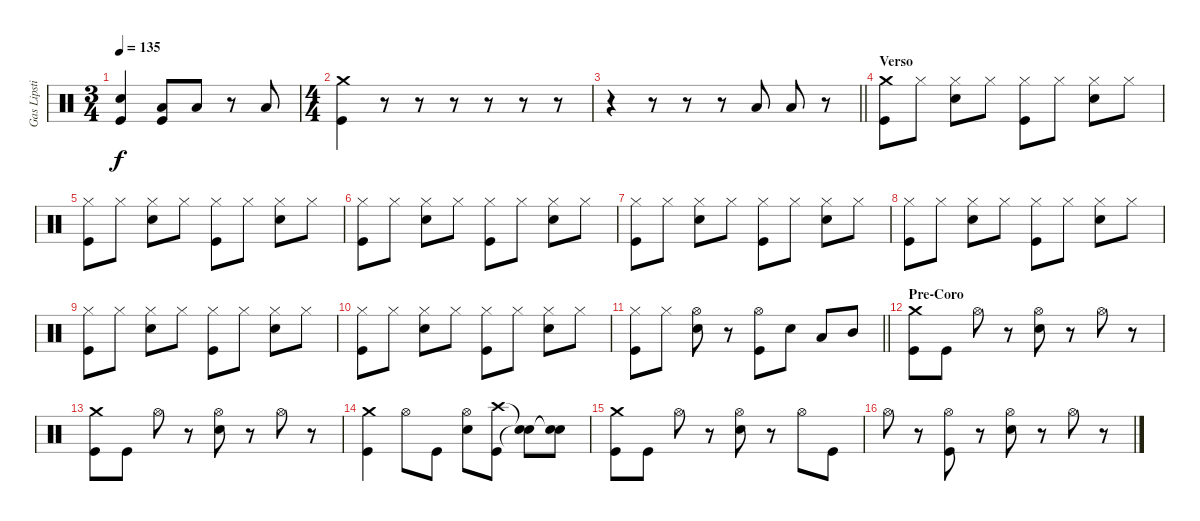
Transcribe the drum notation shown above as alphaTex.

\track ("Gas Lipstick" "Gas Lipsti") {instrument percussion}
\staff {score}
\articulation defaults
\ts (3 4)
\tempo 135
\clef neutral
\ks c
("Snare (hit) 2" "Kick (hit)").4{dy f} ("Low Tom (hit)" "Kick (hit)").8 "Low Tom (hit)".8 r.8 "Low Tom (hit)".8 |
\ts (4 4)
("Crash medium (hit)" "Kick (hit)").4 r.8 r.8 r.8 r.8 r.8 r.8 |
\barLineRight lightlight
r.4 r.8 r.8 r.8 "Low Tom (hit)".8 "Low Tom (hit)".8 r.8 |
\section ("" "Verso")
("Crash medium (hit)" "Kick (hit)").8 "Hi-Hat (closed)".8 ("Hi-Hat (closed)" "Snare (hit) 2").8 "Hi-Hat (closed)".8 ("Hi-Hat (closed)" "Kick (hit)").8 "Hi-Hat (closed)".8 ("Hi-Hat (closed)" "Snare (hit) 2").8 "Hi-Hat (closed)".8 |
("Hi-Hat (closed)" "Kick (hit)").8 "Hi-Hat (closed)".8 ("Hi-Hat (closed)" "Snare (hit) 2").8 "Hi-Hat (closed)".8 ("Hi-Hat (closed)" "Kick (hit)").8 "Hi-Hat (closed)".8 ("Hi-Hat (closed)" "Snare (hit) 2").8 "Hi-Hat (closed)".8 |
("Hi-Hat (closed)" "Kick (hit)").8 "Hi-Hat (closed)".8 ("Hi-Hat (closed)" "Snare (hit) 2").8 "Hi-Hat (closed)".8 ("Hi-Hat (closed)" "Kick (hit)").8 "Hi-Hat (closed)".8 ("Hi-Hat (closed)" "Snare (hit) 2").8 "Hi-Hat (closed)".8 |
("Hi-Hat (closed)" "Kick (hit)").8 "Hi-Hat (closed)".8 ("Hi-Hat (closed)" "Snare (hit) 2").8 "Hi-Hat (closed)".8 ("Hi-Hat (closed)" "Kick (hit)").8 "Hi-Hat (closed)".8 ("Hi-Hat (closed)" "Snare (hit) 2").8 "Hi-Hat (closed)".8 |
("Hi-Hat (closed)" "Kick (hit)").8 "Hi-Hat (closed)".8 ("Hi-Hat (closed)" "Snare (hit) 2").8 "Hi-Hat (closed)".8 ("Hi-Hat (closed)" "Kick (hit)").8 "Hi-Hat (closed)".8 ("Hi-Hat (closed)" "Snare (hit) 2").8 "Hi-Hat (closed)".8 |
("Hi-Hat (closed)" "Kick (hit)").8 "Hi-Hat (closed)".8 ("Hi-Hat (closed)" "Snare (hit) 2").8 "Hi-Hat (closed)".8 ("Hi-Hat (closed)" "Kick (hit)").8 "Hi-Hat (closed)".8 ("Hi-Hat (closed)" "Snare (hit) 2").8 "Hi-Hat (closed)".8 |
("Hi-Hat (closed)" "Kick (hit)").8 "Hi-Hat (closed)".8 ("Hi-Hat (closed)" "Snare (hit) 2").8 "Hi-Hat (closed)".8 ("Hi-Hat (closed)" "Kick (hit)").8 "Hi-Hat (closed)".8 ("Hi-Hat (closed)" "Snare (hit) 2").8 "Hi-Hat (closed)".8 |
\barLineRight lightlight
("Hi-Hat (closed)" "Kick (hit)").8 "Hi-Hat (closed)".8 ("Hi-Hat (open)" "Snare (hit) 2").8 r.8 ("Hi-Hat (open)" "Kick (hit)").8 "Snare (hit) 2".8 "Low Tom (hit)".8 "Mid Tom (hit)".8 |
\section ("" "Pre-Coro")
("Crash medium (hit)" "Kick (hit)").8 "Kick (hit)".8 "Hi-Hat (open)".8 r.8 ("Hi-Hat (open)" "Snare (hit) 2").8 r.8 "Hi-Hat (open)".8 r.8 |
("Crash medium (hit)" "Kick (hit)").8 "Kick (hit)".8 "Hi-Hat (open)".8 r.8 ("Hi-Hat (open)" "Snare (hit) 2").8 r.8 "Hi-Hat (open)".8 r.8 |
("Crash medium (hit)" "Kick (hit)").4 "Hi-Hat (open)".8 "Kick (hit)".8 ("Hi-Hat (open)" "Snare (hit) 2").8 ("Crash high (hit)" "Kick (hit)").8 ("Snare (hit)"{t} "Snare (hit)"{t}).8 ("Snare (hit)"{t} "Snare (hit)"{t}).8 |
("Crash medium (hit)" "Kick (hit)").8 "Kick (hit)".8 "Hi-Hat (open)".8 r.8 ("Hi-Hat (open)" "Snare (hit) 2").8 r.8 "Hi-Hat (open)".8 "Kick (hit)".8 |
"Hi-Hat (open)".8 r.8 ("Hi-Hat (open)" "Kick (hit)").8 r.8 ("Hi-Hat (open)" "Snare (hit) 2").8 r.8 "Hi-Hat (open)".8 r.8
